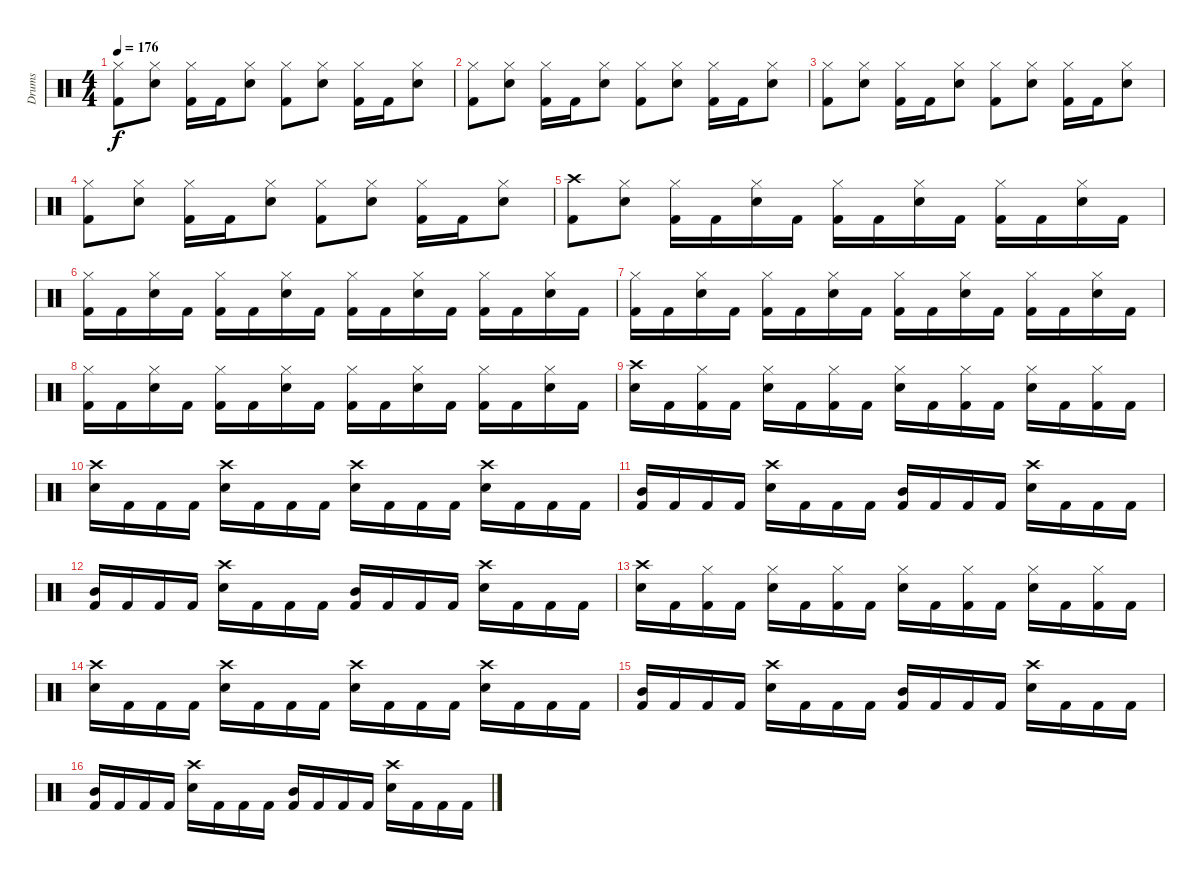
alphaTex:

\track ("Drums" "Drums") {instrument percussion}
\staff {score}
\articulation defaults
\ts (4 4)
\tempo 176
\clef neutral
\ks c
("Hi-Hat (closed)" "Kick (hit) 2").8{dy f} ("Hi-Hat (closed)" "Electric Snare (hit)").8 ("Hi-Hat (closed)" "Kick (hit) 2").16 "Kick (hit) 2".16 ("Hi-Hat (closed)" "Electric Snare (hit)").8 ("Hi-Hat (closed)" "Kick (hit) 2").8 ("Hi-Hat (closed)" "Electric Snare (hit)").8 ("Hi-Hat (closed)" "Kick (hit) 2").16 "Kick (hit) 2".16 ("Hi-Hat (closed)" "Electric Snare (hit)").8 |
("Hi-Hat (closed)" "Kick (hit) 2").8 ("Hi-Hat (closed)" "Electric Snare (hit)").8 ("Hi-Hat (closed)" "Kick (hit) 2").16 "Kick (hit) 2".16 ("Hi-Hat (closed)" "Electric Snare (hit)").8 ("Hi-Hat (closed)" "Kick (hit) 2").8 ("Hi-Hat (closed)" "Electric Snare (hit)").8 ("Hi-Hat (closed)" "Kick (hit) 2").16 "Kick (hit) 2".16 ("Hi-Hat (closed)" "Electric Snare (hit)").8 |
("Hi-Hat (closed)" "Kick (hit) 2").8 ("Hi-Hat (closed)" "Electric Snare (hit)").8 ("Hi-Hat (closed)" "Kick (hit) 2").16 "Kick (hit) 2".16 ("Hi-Hat (closed)" "Electric Snare (hit)").8 ("Hi-Hat (closed)" "Kick (hit) 2").8 ("Hi-Hat (closed)" "Electric Snare (hit)").8 ("Hi-Hat (closed)" "Kick (hit) 2").16 "Kick (hit) 2".16 ("Hi-Hat (closed)" "Electric Snare (hit)").8 |
("Hi-Hat (closed)" "Kick (hit) 2").8 ("Hi-Hat (closed)" "Electric Snare (hit)").8 ("Hi-Hat (closed)" "Kick (hit) 2").16 "Kick (hit) 2".16 ("Hi-Hat (closed)" "Electric Snare (hit)").8 ("Hi-Hat (closed)" "Kick (hit) 2").8 ("Hi-Hat (closed)" "Electric Snare (hit)").8 ("Hi-Hat (closed)" "Kick (hit) 2").16 "Kick (hit) 2".16 ("Hi-Hat (closed)" "Electric Snare (hit)").8 |
("Crash high (hit)" "Kick (hit) 2").8 ("Hi-Hat (closed)" "Electric Snare (hit)").8 ("Hi-Hat (closed)" "Kick (hit) 2").16 "Kick (hit) 2".16 ("Hi-Hat (closed)" "Electric Snare (hit)").16 "Kick (hit) 2".16 ("Hi-Hat (closed)" "Kick (hit) 2").16 "Kick (hit) 2".16 ("Hi-Hat (closed)" "Electric Snare (hit)").16 "Kick (hit) 2".16 ("Hi-Hat (closed)" "Kick (hit) 2").16 "Kick (hit) 2".16 ("Hi-Hat (closed)" "Electric Snare (hit)").16 "Kick (hit) 2".16 |
("Hi-Hat (closed)" "Kick (hit) 2").16 "Kick (hit) 2".16 ("Hi-Hat (closed)" "Electric Snare (hit)").16 "Kick (hit) 2".16 ("Hi-Hat (closed)" "Kick (hit) 2").16 "Kick (hit) 2".16 ("Hi-Hat (closed)" "Electric Snare (hit)").16 "Kick (hit) 2".16 ("Hi-Hat (closed)" "Kick (hit) 2").16 "Kick (hit) 2".16 ("Hi-Hat (closed)" "Electric Snare (hit)").16 "Kick (hit) 2".16 ("Hi-Hat (closed)" "Kick (hit) 2").16 "Kick (hit) 2".16 ("Hi-Hat (closed)" "Electric Snare (hit)").16 "Kick (hit) 2".16 |
("Hi-Hat (closed)" "Kick (hit) 2").16 "Kick (hit) 2".16 ("Hi-Hat (closed)" "Electric Snare (hit)").16 "Kick (hit) 2".16 ("Hi-Hat (closed)" "Kick (hit) 2").16 "Kick (hit) 2".16 ("Hi-Hat (closed)" "Electric Snare (hit)").16 "Kick (hit) 2".16 ("Hi-Hat (closed)" "Kick (hit) 2").16 "Kick (hit) 2".16 ("Hi-Hat (closed)" "Electric Snare (hit)").16 "Kick (hit) 2".16 ("Hi-Hat (closed)" "Kick (hit) 2").16 "Kick (hit) 2".16 ("Hi-Hat (closed)" "Electric Snare (hit)").16 "Kick (hit) 2".16 |
("Hi-Hat (closed)" "Kick (hit) 2").16 "Kick (hit) 2".16 ("Hi-Hat (closed)" "Electric Snare (hit)").16 "Kick (hit) 2".16 ("Hi-Hat (closed)" "Kick (hit) 2").16 "Kick (hit) 2".16 ("Hi-Hat (closed)" "Electric Snare (hit)").16 "Kick (hit) 2".16 ("Hi-Hat (closed)" "Kick (hit) 2").16 "Kick (hit) 2".16 ("Hi-Hat (closed)" "Electric Snare (hit)").16 "Kick (hit) 2".16 ("Hi-Hat (closed)" "Kick (hit) 2").16 "Kick (hit) 2".16 ("Hi-Hat (closed)" "Electric Snare (hit)").16 "Kick (hit) 2".16 |
("Crash high (hit)" "Electric Snare (hit)").16 "Kick (hit) 2".16 ("Hi-Hat (closed)" "Kick (hit) 2").16 "Kick (hit) 2".16 ("Hi-Hat (closed)" "Electric Snare (hit)").16 "Kick (hit) 2".16 ("Hi-Hat (closed)" "Kick (hit) 2").16 "Kick (hit) 2".16 ("Hi-Hat (closed)" "Electric Snare (hit)").16 "Kick (hit) 2".16 ("Hi-Hat (closed)" "Kick (hit) 2").16 "Kick (hit) 2".16 ("Hi-Hat (closed)" "Electric Snare (hit)").16 "Kick (hit) 2".16 ("Hi-Hat (closed)" "Kick (hit) 2").16 "Kick (hit) 2".16 |
("Crash high (hit)" "Electric Snare (hit)").16 "Kick (hit) 2".16 "Kick (hit) 2".16 "Kick (hit) 2".16 ("Crash high (hit)" "Electric Snare (hit)").16 "Kick (hit) 2".16 "Kick (hit) 2".16 "Kick (hit) 2".16 ("Crash high (hit)" "Electric Snare (hit)").16 "Kick (hit) 2".16 "Kick (hit) 2".16 "Kick (hit) 2".16 ("Crash high (hit)" "Electric Snare (hit)").16 "Kick (hit) 2".16 "Kick (hit) 2".16 "Kick (hit) 2".16 |
("Mid Tom (hit)" "Kick (hit) 2").16 "Kick (hit) 2".16 "Kick (hit) 2".16 "Kick (hit) 2".16 ("Crash high (hit)" "Electric Snare (hit)").16 "Kick (hit) 2".16 "Kick (hit) 2".16 "Kick (hit) 2".16 ("Mid Tom (hit)" "Kick (hit) 2").16 "Kick (hit) 2".16 "Kick (hit) 2".16 "Kick (hit) 2".16 ("Crash high (hit)" "Electric Snare (hit)").16 "Kick (hit) 2".16 "Kick (hit) 2".16 "Kick (hit) 2".16 |
("Mid Tom (hit)" "Kick (hit) 2").16 "Kick (hit) 2".16 "Kick (hit) 2".16 "Kick (hit) 2".16 ("Crash high (hit)" "Electric Snare (hit)").16 "Kick (hit) 2".16 "Kick (hit) 2".16 "Kick (hit) 2".16 ("Mid Tom (hit)" "Kick (hit) 2").16 "Kick (hit) 2".16 "Kick (hit) 2".16 "Kick (hit) 2".16 ("Crash high (hit)" "Electric Snare (hit)").16 "Kick (hit) 2".16 "Kick (hit) 2".16 "Kick (hit) 2".16 |
("Crash high (hit)" "Electric Snare (hit)").16 "Kick (hit) 2".16 ("Hi-Hat (closed)" "Kick (hit) 2").16 "Kick (hit) 2".16 ("Hi-Hat (closed)" "Electric Snare (hit)").16 "Kick (hit) 2".16 ("Hi-Hat (closed)" "Kick (hit) 2").16 "Kick (hit) 2".16 ("Hi-Hat (closed)" "Electric Snare (hit)").16 "Kick (hit) 2".16 ("Hi-Hat (closed)" "Kick (hit) 2").16 "Kick (hit) 2".16 ("Hi-Hat (closed)" "Electric Snare (hit)").16 "Kick (hit) 2".16 ("Hi-Hat (closed)" "Kick (hit) 2").16 "Kick (hit) 2".16 |
("Crash high (hit)" "Electric Snare (hit)").16 "Kick (hit) 2".16 "Kick (hit) 2".16 "Kick (hit) 2".16 ("Crash high (hit)" "Electric Snare (hit)").16 "Kick (hit) 2".16 "Kick (hit) 2".16 "Kick (hit) 2".16 ("Crash high (hit)" "Electric Snare (hit)").16 "Kick (hit) 2".16 "Kick (hit) 2".16 "Kick (hit) 2".16 ("Crash high (hit)" "Electric Snare (hit)").16 "Kick (hit) 2".16 "Kick (hit) 2".16 "Kick (hit) 2".16 |
("Mid Tom (hit)" "Kick (hit) 2").16 "Kick (hit) 2".16 "Kick (hit) 2".16 "Kick (hit) 2".16 ("Crash high (hit)" "Electric Snare (hit)").16 "Kick (hit) 2".16 "Kick (hit) 2".16 "Kick (hit) 2".16 ("Mid Tom (hit)" "Kick (hit) 2").16 "Kick (hit) 2".16 "Kick (hit) 2".16 "Kick (hit) 2".16 ("Crash high (hit)" "Electric Snare (hit)").16 "Kick (hit) 2".16 "Kick (hit) 2".16 "Kick (hit) 2".16 |
("Mid Tom (hit)" "Kick (hit) 2").16 "Kick (hit) 2".16 "Kick (hit) 2".16 "Kick (hit) 2".16 ("Crash high (hit)" "Electric Snare (hit)").16 "Kick (hit) 2".16 "Kick (hit) 2".16 "Kick (hit) 2".16 ("Mid Tom (hit)" "Kick (hit) 2").16 "Kick (hit) 2".16 "Kick (hit) 2".16 "Kick (hit) 2".16 ("Crash high (hit)" "Electric Snare (hit)").16 "Kick (hit) 2".16 "Kick (hit) 2".16 "Kick (hit) 2".16
